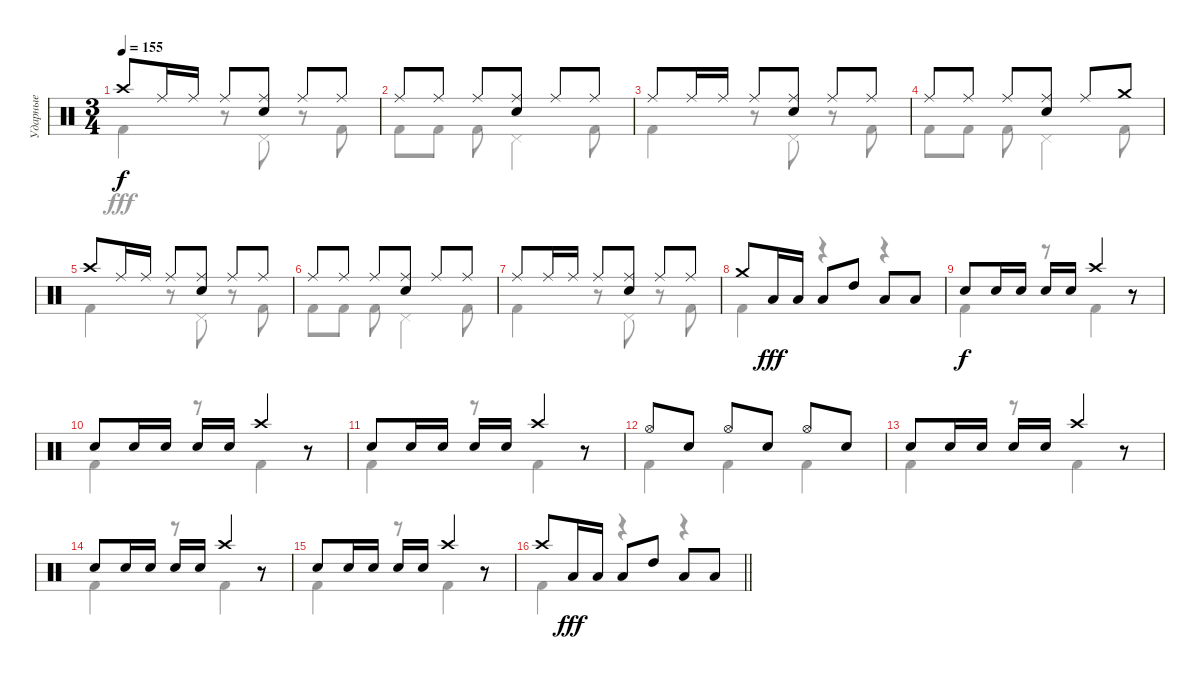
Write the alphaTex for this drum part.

\track ("Ударные" "Ударные") {instrument percussion}
\staff {score}
\articulation defaults
\voice
\ts (3 4)
\tempo 155
\clef neutral
\ks c "Crash high (hit)".8{dy f} "Ride (middle)".16 "Ride (middle)".16 "Ride (middle)".8
("Ride (middle)" "Electric Snare (hit)").8 "Ride (middle)".8 "Ride (middle)".8 |
"Ride (middle)".8 "Ride (middle)".8 "Ride (middle)".8 ("Ride (middle)" "Electric Snare (hit)").8 "Ride (middle)".8 "Ride (middle)".8 |
"Ride (middle)".8 "Ride (middle)".16 "Ride (middle)".16 "Ride (middle)".8 ("Ride (middle)" "Electric Snare (hit)").8 "Ride (middle)".8 "Ride (middle)".8 |
"Ride (middle)".8 "Ride (middle)".8 "Ride (middle)".8 ("Ride (middle)" "Electric Snare (hit)").8 "Ride (middle)".8 "Crash medium (hit)".8 |
"Crash high (hit)".8 "Ride (middle)".16 "Ride (middle)".16 "Ride (middle)".8 ("Ride (middle)" "Electric Snare (hit)").8 "Ride (middle)".8 "Ride (middle)".8 |
"Ride (middle)".8 "Ride (middle)".8 "Ride (middle)".8 ("Ride (middle)" "Electric Snare (hit)").8 "Ride (middle)".8 "Ride (middle)".8 |
"Ride (middle)".8 "Ride (middle)".16 "Ride (middle)".16 "Ride (middle)".8 ("Ride (middle)" "Electric Snare (hit)").8 "Ride (middle)".8 "Ride (middle)".8 |
"Crash medium (hit)".8 "Low Floor Tom (hit)".16{dy fff} "Low Floor Tom (hit)".16 "Low Floor Tom (hit)".8 "High Tom (hit)".8 "Low Tom (hit)".8 "Low Floor Tom (hit)".8 |
"Snare (hit) 2".8{dy f} "Snare (hit) 2".16 "Snare (hit) 2".16 "Snare (hit) 2".16 "Snare (hit) 2".16 "Crash high (hit)".4 r.8 |
"Snare (hit) 2".8 "Snare (hit) 2".16 "Snare (hit) 2".16 "Snare (hit) 2".16 "Snare (hit) 2".16 "Crash high (hit)".4 r.8 |
"Snare (hit) 2".8 "Snare (hit) 2".16 "Snare (hit) 2".16 "Snare (hit) 2".16 "Snare (hit) 2".16 "Crash high (hit)".4 r.8 |
"Hi-Hat (open)".8 "Electric Snare (hit)".8 "Hi-Hat (open)".8 "Electric Snare (hit)".8 "Hi-Hat (open)".8 "Electric Snare (hit)".8 |
"Snare (hit) 2".8 "Snare (hit) 2".16 "Snare (hit) 2".16 "Snare (hit) 2".16 "Snare (hit) 2".16 "Crash high (hit)".4 r.8 |
"Snare (hit) 2".8 "Snare (hit) 2".16 "Snare (hit) 2".16 "Snare (hit) 2".16 "Snare (hit) 2".16 "Crash high (hit)".4 r.8 |
"Snare (hit) 2".8 "Snare (hit) 2".16 "Snare (hit) 2".16 "Snare (hit) 2".16 "Snare (hit) 2".16 "Crash high (hit)".4 r.8 |
\barLineRight lightlight "Crash high (hit)".8 "Low Floor Tom (hit)".16{dy fff} "Low Floor Tom (hit)".16 "Low Floor Tom (hit)".8 "High Tom (hit)".8 "Low Tom (hit)".8 "Low Floor Tom (hit)".8
\voice
\clef neutral
\ottava regular
\simile none
\ks c "Kick (hit) 2".4{dy fff}
r.8 "Pedal Hi-Hat (hit)".8 r.8 "Kick (hit) 2".8 |
"Kick (hit) 2".8 "Kick (hit) 2".8 "Kick (hit) 2".8 "Pedal Hi-Hat (hit)".4 "Kick (hit) 2".8 |
"Kick (hit) 2".4 r.8 "Pedal Hi-Hat (hit)".8 r.8 "Kick (hit) 2".8 |
"Kick (hit) 2".8 "Kick (hit) 2".8 "Kick (hit) 2".8 "Pedal Hi-Hat (hit)".4 "Kick (hit) 2".8 |
"Kick (hit) 2".4 r.8 "Pedal Hi-Hat (hit)".8 r.8 "Kick (hit) 2".8 |
"Kick (hit) 2".8 "Kick (hit) 2".8 "Kick (hit) 2".8 "Pedal Hi-Hat (hit)".4 "Kick (hit) 2".8 |
"Kick (hit) 2".4 r.8 "Pedal Hi-Hat (hit)".8 r.8 "Kick (hit) 2".8 |
"Kick (hit) 2".4 r.4 r.4 |
"Kick (hit) 2".4 r.8 "Kick (hit) 2".4 r.8 |
"Kick (hit) 2".4 r.8 "Kick (hit) 2".4 r.8 |
"Kick (hit) 2".4 r.8 "Kick (hit) 2".4 r.8 |
"Kick (hit) 2".4 "Kick (hit) 2".4 "Kick (hit) 2".4 |
"Kick (hit) 2".4 r.8 "Kick (hit) 2".4 r.8 |
"Kick (hit) 2".4 r.8 "Kick (hit) 2".4 r.8 |
"Kick (hit) 2".4 r.8 "Kick (hit) 2".4 r.8 |
\barLineRight lightlight "Kick (hit) 2".4
r.4 r.4
